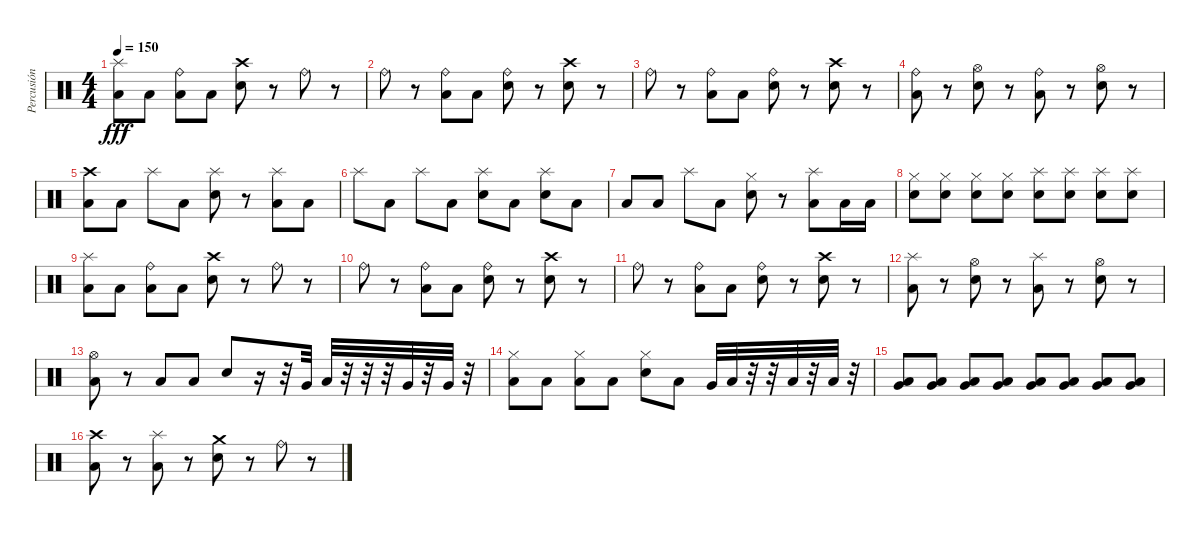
\track ("Percusión" "Percusión") {instrument percussion}
\staff {score}
\articulation defaults
\ts (4 4)
\tempo 150
\clef neutral
\ks c
("Splash (hit)" "Low Tom (hit)").8{dy fff} "Low Tom (hit)".8 ("Ride (bell)" "Low Tom (hit)").8 "Low Tom (hit)".8 ("Crash high (hit)" "Snare (hit) 2").8 r.8 "Ride (bell)".8 r.8 |
"Ride (bell)".8 r.8 ("Ride (bell)" "Low Tom (hit)").8 "Low Tom (hit)".8 ("Ride (bell)" "Snare (hit) 2").8 r.8 ("Crash high (hit)" "Snare (hit) 2").8 r.8 |
"Ride (bell)".8 r.8 ("Ride (bell)" "Low Tom (hit)").8 "Low Tom (hit)".8 ("Ride (bell)" "Snare (hit) 2").8 r.8 ("Crash high (hit)" "Snare (hit) 2").8 r.8 |
("Ride (bell)" "Low Tom (hit)").8 r.8 ("Hi-Hat (open)" "Snare (hit) 2").8 r.8 ("Ride (bell)" "Low Tom (hit)").8 r.8 ("Hi-Hat (open)" "Snare (hit) 2").8 r.8 |
("Crash high (hit)" "Low Tom (hit)").8 "Low Tom (hit)".8 "Splash (hit)".8 "Low Tom (hit)".8 ("Splash (hit)" "Snare (hit) 2").8 r.8 ("Splash (hit)" "Low Tom (hit)").8 "Low Tom (hit)".8 |
"Splash (hit)".8 "Low Tom (hit)".8 "Splash (hit)".8 "Low Tom (hit)".8 ("Splash (hit)" "Snare (hit) 2").8 "Low Tom (hit)".8 ("Splash (hit)" "Snare (hit) 2").8 "Low Tom (hit)".8 |
"Low Tom (hit)".8 "Low Tom (hit)".8 "Splash (hit)".8 "Low Tom (hit)".8 ("Hi-Hat (closed)" "Snare (hit) 2").8 r.8 ("Splash (hit)" "Low Tom (hit)").8 "Low Tom (hit)".16 "Low Tom (hit)".16 |
("Hi-Hat (closed)" "Snare (hit) 2").8 ("Hi-Hat (closed)" "Snare (hit) 2").8 ("Hi-Hat (closed)" "Snare (hit) 2").8 ("Hi-Hat (closed)" "Snare (hit) 2").8 ("Splash (hit)" "Snare (hit) 2").8 ("Splash (hit)" "Snare (hit) 2").8 ("Splash (hit)" "Snare (hit) 2").8 ("Splash (hit)" "Snare (hit) 2").8 |
("Splash (hit)" "Low Tom (hit)").8 "Low Tom (hit)".8 ("Ride (bell)" "Low Tom (hit)").8 "Low Tom (hit)".8 ("Crash high (hit)" "Snare (hit) 2").8 r.8 "Ride (bell)".8 r.8 |
"Ride (bell)".8 r.8 ("Ride (bell)" "Low Tom (hit)").8 "Low Tom (hit)".8 ("Ride (bell)" "Snare (hit) 2").8 r.8 ("Crash high (hit)" "Snare (hit) 2").8 r.8 |
"Ride (bell)".8 r.8 ("Ride (bell)" "Low Tom (hit)").8 "Low Tom (hit)".8 ("Ride (bell)" "Snare (hit) 2").8 r.8 ("Crash high (hit)" "Snare (hit) 2").8 r.8 |
("Splash (hit)" "Low Tom (hit)").8 r.8 ("Hi-Hat (open)" "Snare (hit) 2").8 r.8 ("Splash (hit)" "Low Tom (hit)").8 r.8 ("Hi-Hat (open)" "Snare (hit) 2").8 r.8 |
("Hi-Hat (open)" "Low Tom (hit)").8 r.8 "Low Tom (hit)".8 "Low Tom (hit)".8 "Snare (hit) 2".8 r.16 r.32 "Very Low Tom (hit)".32 "Low Floor Tom (hit)".32 r.32 r.32 r.32 "Very Low Tom (hit)".32 r.32 "Very Low Tom (hit)".32 r.32 |
("Hi-Hat (closed)" "Low Tom (hit)").8 "Low Tom (hit)".8 ("Hi-Hat (closed)" "Low Tom (hit)").8 "Low Tom (hit)".8 ("Hi-Hat (closed)" "Snare (hit) 2").8 "Low Tom (hit)".8 "Very Low Tom (hit)".32 "Low Floor Tom (hit)".32 r.32 r.32 "Low Tom (hit)".32 r.32 "Low Tom (hit)".32 r.32 |
("Very Low Tom (hit)" "Low Floor Tom (hit)").8 ("Very Low Tom (hit)" "Low Floor Tom (hit)").8 ("Very Low Tom (hit)" "Low Floor Tom (hit)").8 ("Low Floor Tom (hit)" "Very Low Tom (hit)").8 ("Very Low Tom (hit)" "Low Floor Tom (hit)").8 ("Very Low Tom (hit)" "Low Floor Tom (hit)").8 ("Low Floor Tom (hit)" "Very Low Tom (hit)").8 ("Very Low Tom (hit)" "Low Floor Tom (hit)").8 |
("Crash high (hit)" "Low Tom (hit)").8 r.8 ("Splash (hit)" "Low Tom (hit)").8 r.8 ("Crash medium (hit)" "Snare (hit) 2").8 r.8 "Ride (bell)".8 r.8
